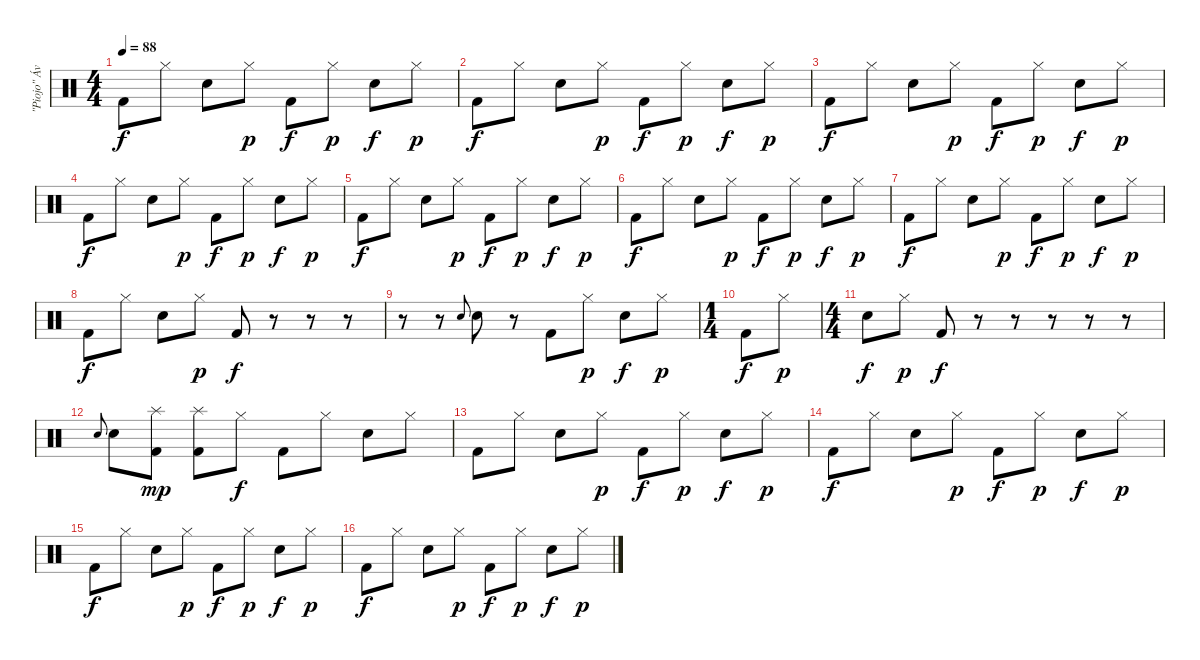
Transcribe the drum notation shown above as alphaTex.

\track ("\"Piojo\" Ávalos" "\"Piojo\" Áv") {instrument percussion}
\staff {score}
\articulation defaults
\ts (4 4)
\tempo 88
\clef neutral
\ks c "Kick (hit) 2".8{dy f} "Hi-Hat (closed)".8 "Snare (hit) 2".8 "Hi-Hat (closed)".8{dy p} "Kick (hit) 2".8{dy f} "Hi-Hat (closed)".8{dy p} "Snare (hit) 2".8{dy f} "Hi-Hat (closed)".8{dy p}
|
"Kick (hit) 2".8{dy f} "Hi-Hat (closed)".8 "Snare (hit) 2".8 "Hi-Hat (closed)".8{dy p} "Kick (hit) 2".8{dy f} "Hi-Hat (closed)".8{dy p} "Snare (hit) 2".8{dy f} "Hi-Hat (closed)".8{dy p} |
"Kick (hit) 2".8{dy f} "Hi-Hat (closed)".8 "Snare (hit) 2".8 "Hi-Hat (closed)".8{dy p} "Kick (hit) 2".8{dy f} "Hi-Hat (closed)".8{dy p} "Snare (hit) 2".8{dy f} "Hi-Hat (closed)".8{dy p} |
"Kick (hit) 2".8{dy f} "Hi-Hat (closed)".8 "Snare (hit) 2".8 "Hi-Hat (closed)".8{dy p} "Kick (hit) 2".8{dy f} "Hi-Hat (closed)".8{dy p} "Snare (hit) 2".8{dy f} "Hi-Hat (closed)".8{dy p} |
"Kick (hit) 2".8{dy f} "Hi-Hat (closed)".8 "Snare (hit) 2".8 "Hi-Hat (closed)".8{dy p} "Kick (hit) 2".8{dy f} "Hi-Hat (closed)".8{dy p} "Snare (hit) 2".8{dy f} "Hi-Hat (closed)".8{dy p} |
"Kick (hit) 2".8{dy f} "Hi-Hat (closed)".8 "Snare (hit) 2".8 "Hi-Hat (closed)".8{dy p} "Kick (hit) 2".8{dy f} "Hi-Hat (closed)".8{dy p} "Snare (hit) 2".8{dy f} "Hi-Hat (closed)".8{dy p} |
"Kick (hit) 2".8{dy f} "Hi-Hat (closed)".8 "Snare (hit) 2".8 "Hi-Hat (closed)".8{dy p} "Kick (hit) 2".8{dy f} "Hi-Hat (closed)".8{dy p} "Snare (hit) 2".8{dy f} "Hi-Hat (closed)".8{dy p} |
"Kick (hit) 2".8{dy f} "Hi-Hat (closed)".8 "Snare (hit) 2".8 "Hi-Hat (closed)".8{dy p} "Kick (hit) 2".8{dy f} r.8 r.8 r.8 |
r.8 r.8 "Snare (hit) 2".8{gr onbeat} "Snare (hit) 2".8 r.8 "Kick (hit) 2".8 "Hi-Hat (closed)".8{dy p} "Snare (hit) 2".8{dy f} "Hi-Hat (closed)".8{dy p} |
\ts (1 4)
"Kick (hit) 2".8{dy f} "Hi-Hat (closed)".8{dy p} |
\ts (4 4)
"Snare (hit) 2".8{dy f} "Hi-Hat (closed)".8{dy p} "Kick (hit) 2".8{dy f} r.8 r.8 r.8 r.8 r.8 |
"Snare (hit) 2".8{gr onbeat} "Snare (hit) 2".8 ("Splash (hit)" "Kick (hit) 2").8{dy mp} ("Splash (hit)" "Kick (hit) 2").8 "Hi-Hat (closed)".8{dy f} "Kick (hit) 2".8 "Hi-Hat (closed)".8 "Snare (hit) 2".8 "Hi-Hat (closed)".8 |
"Kick (hit) 2".8 "Hi-Hat (closed)".8 "Snare (hit) 2".8 "Hi-Hat (closed)".8{dy p} "Kick (hit) 2".8{dy f} "Hi-Hat (closed)".8{dy p} "Snare (hit) 2".8{dy f} "Hi-Hat (closed)".8{dy p} |
"Kick (hit) 2".8{dy f} "Hi-Hat (closed)".8 "Snare (hit) 2".8 "Hi-Hat (closed)".8{dy p} "Kick (hit) 2".8{dy f volume 6} "Hi-Hat (closed)".8{dy p} "Snare (hit) 2".8{dy f} "Hi-Hat (closed)".8{dy p} |
"Kick (hit) 2".8{dy f} "Hi-Hat (closed)".8 "Snare (hit) 2".8 "Hi-Hat (closed)".8{dy p} "Kick (hit) 2".8{dy f} "Hi-Hat (closed)".8{dy p} "Snare (hit) 2".8{dy f} "Hi-Hat (closed)".8{dy p} |
"Kick (hit) 2".8{dy f} "Hi-Hat (closed)".8 "Snare (hit) 2".8 "Hi-Hat (closed)".8{dy p} "Kick (hit) 2".8{dy f} "Hi-Hat (closed)".8{dy p} "Snare (hit) 2".8{dy f} "Hi-Hat (closed)".8{dy p}
